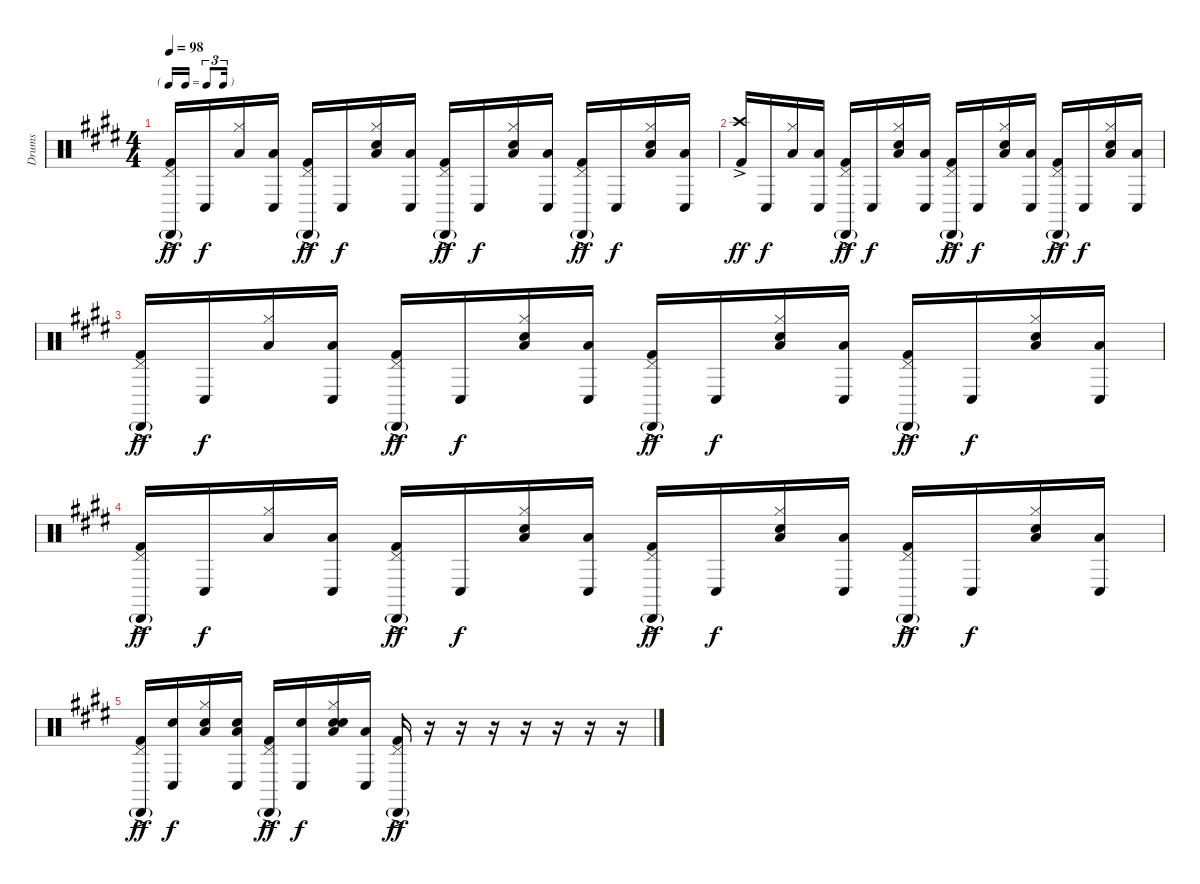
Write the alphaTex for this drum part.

\track ("Drums" "Drums") {instrument percussion}
\staff {score}
\articulation defaults
\ts (4 4)
\tf triplet16th
\tempo 98
\clef neutral
\ks e
("Pedal Hi-Hat (hit)" "Cabasa (hit)"{g} "Kick (hit) 2"{ac}).16{dy ff} "Conga low (hit)".16{dy f} ("Hi-Hat (closed)" "Low Tom (hit)").16 ("Low Tom (hit)" "Conga low (hit)").16 ("Pedal Hi-Hat (hit)" "Cabasa (hit)"{g} "Kick (hit) 2"{ac}).16{dy ff} "Conga low (hit)".16{dy f} ("Hi-Hat (closed)" "Low Tom (hit)" "Hand Clap (hit)").16 ("Low Tom (hit)" "Conga low (hit)").16 ("Pedal Hi-Hat (hit)" "Cabasa (hit)"{g} "Kick (hit) 2"{ac}).16{dy ff} "Conga low (hit)".16{dy f} ("Hi-Hat (closed)" "Low Tom (hit)" "Hand Clap (hit)").16 ("Low Tom (hit)" "Conga low (hit)").16 ("Pedal Hi-Hat (hit)" "Cabasa (hit)"{g} "Kick (hit) 2"{ac}).16{dy ff} "Conga low (hit)".16{dy f} ("Hi-Hat (closed)" "Low Tom (hit)" "Hand Clap (hit)").16 ("Low Tom (hit)" "Conga low (hit)").16 |
("Crash high (hit)" "Kick (hit) 2"{ac}).16{dy ff} "Conga low (hit)".16{dy f} ("Hi-Hat (closed)" "Low Tom (hit)").16 ("Low Tom (hit)" "Conga low (hit)").16 ("Pedal Hi-Hat (hit)" "Cabasa (hit)"{g} "Kick (hit) 2"{ac}).16{dy ff} "Conga low (hit)".16{dy f} ("Hi-Hat (closed)" "Low Tom (hit)" "Hand Clap (hit)").16 ("Low Tom (hit)" "Conga low (hit)").16 ("Pedal Hi-Hat (hit)" "Cabasa (hit)"{g} "Kick (hit) 2"{ac}).16{dy ff} "Conga low (hit)".16{dy f} ("Hi-Hat (closed)" "Low Tom (hit)" "Hand Clap (hit)").16 ("Low Tom (hit)" "Conga low (hit)").16 ("Pedal Hi-Hat (hit)" "Cabasa (hit)"{g} "Kick (hit) 2"{ac}).16{dy ff} "Conga low (hit)".16{dy f} ("Hi-Hat (closed)" "Low Tom (hit)" "Hand Clap (hit)").16 ("Low Tom (hit)" "Conga low (hit)").16 |
("Pedal Hi-Hat (hit)" "Cabasa (hit)"{g} "Kick (hit) 2"{ac}).16{dy ff} "Conga low (hit)".16{dy f} ("Hi-Hat (closed)" "Low Tom (hit)").16 ("Low Tom (hit)" "Conga low (hit)").16 ("Pedal Hi-Hat (hit)" "Cabasa (hit)"{g} "Kick (hit) 2"{ac}).16{dy ff} "Conga low (hit)".16{dy f} ("Hi-Hat (closed)" "Low Tom (hit)" "Hand Clap (hit)").16 ("Low Tom (hit)" "Conga low (hit)").16 ("Pedal Hi-Hat (hit)" "Cabasa (hit)"{g} "Kick (hit) 2"{ac}).16{dy ff} "Conga low (hit)".16{dy f} ("Hi-Hat (closed)" "Low Tom (hit)" "Hand Clap (hit)").16 ("Low Tom (hit)" "Conga low (hit)").16 ("Pedal Hi-Hat (hit)" "Cabasa (hit)"{g} "Kick (hit) 2"{ac}).16{dy ff} "Conga low (hit)".16{dy f} ("Hi-Hat (closed)" "Low Tom (hit)" "Hand Clap (hit)").16 ("Low Tom (hit)" "Conga low (hit)").16 |
("Pedal Hi-Hat (hit)" "Cabasa (hit)"{g} "Kick (hit) 2"{ac}).16{dy ff} "Conga low (hit)".16{dy f} ("Hi-Hat (closed)" "Low Tom (hit)").16 ("Low Tom (hit)" "Conga low (hit)").16 ("Pedal Hi-Hat (hit)" "Cabasa (hit)"{g} "Kick (hit) 2"{ac}).16{dy ff} "Conga low (hit)".16{dy f} ("Hi-Hat (closed)" "Low Tom (hit)" "Hand Clap (hit)").16 ("Low Tom (hit)" "Conga low (hit)").16 ("Pedal Hi-Hat (hit)" "Cabasa (hit)"{g} "Kick (hit) 2"{ac}).16{dy ff} "Conga low (hit)".16{dy f} ("Hi-Hat (closed)" "Low Tom (hit)" "Hand Clap (hit)").16 ("Low Tom (hit)" "Conga low (hit)").16 ("Pedal Hi-Hat (hit)" "Cabasa (hit)"{g} "Kick (hit) 2"{ac}).16{dy ff} "Conga low (hit)".16{dy f} ("Hi-Hat (closed)" "Low Tom (hit)" "Hand Clap (hit)").16 ("Low Tom (hit)" "Conga low (hit)").16 |
("Pedal Hi-Hat (hit)" "Cabasa (hit)"{g} "Kick (hit) 2"{ac}).16{dy ff} ("Conga low (hit)" "Electric Snare (hit)").16{dy f} ("Hi-Hat (closed)" "Low Tom (hit)" "Snare (hit) 2").16 ("Low Tom (hit)" "Conga low (hit)" "Electric Snare (hit)").16 ("Pedal Hi-Hat (hit)" "Cabasa (hit)"{g} "Kick (hit) 2"{ac}).16{dy ff} ("Conga low (hit)" "Electric Snare (hit)").16{dy f} ("Hand Clap (hit)" "Hi-Hat (closed)" "Low Tom (hit)" "Electric Snare (hit)").16 ("Low Tom (hit)" "Conga low (hit)").16 ("Pedal Hi-Hat (hit)" "Cabasa (hit)"{g} "Kick (hit) 2"{ac}).16{dy ff} r.16 r.16 r.16 r.16 r.16 r.16 r.16
